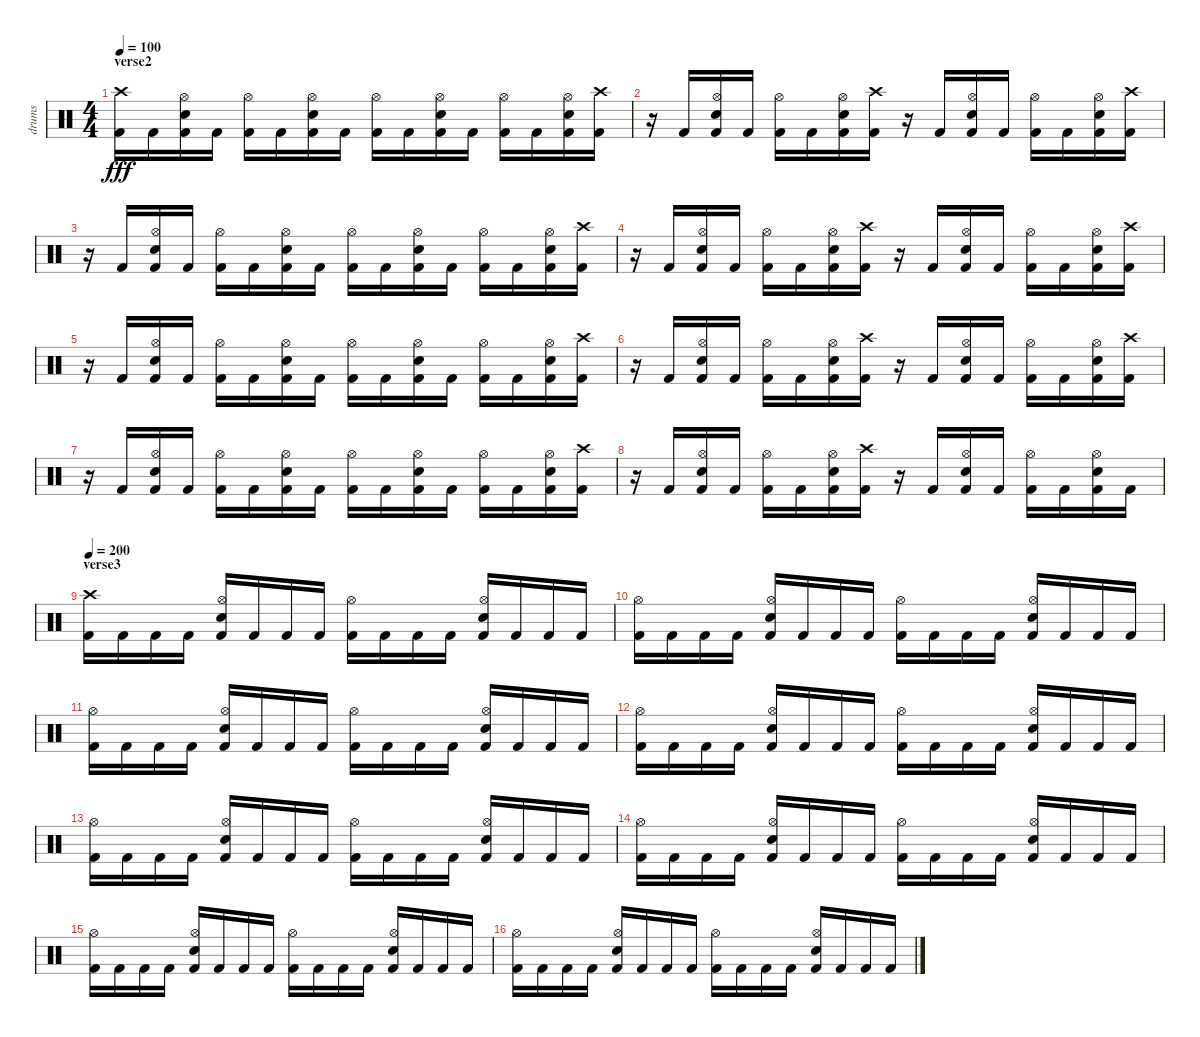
\track ("drums" "drums") {instrument percussion}
\staff {score}
\articulation defaults
\ts (4 4)
\section ("" "verse2")
\tempo 100
\clef neutral
\ks c
("Crash high (hit)" "Kick (hit) 2").16{dy fff} "Kick (hit) 2".16 ("Hi-Hat (open)" "Snare (hit) 2" "Kick (hit) 2").16 "Kick (hit) 2".16 ("Hi-Hat (open)" "Kick (hit) 2").16 "Kick (hit) 2".16 ("Hi-Hat (open)" "Snare (hit) 2" "Kick (hit) 2").16 "Kick (hit) 2".16 ("Hi-Hat (open)" "Kick (hit) 2").16 "Kick (hit) 2".16 ("Hi-Hat (open)" "Snare (hit) 2" "Kick (hit) 2").16 "Kick (hit) 2".16 ("Hi-Hat (open)" "Kick (hit) 2").16 "Kick (hit) 2".16 ("Hi-Hat (open)" "Snare (hit) 2" "Kick (hit) 2").16 ("Crash high (hit)" "Kick (hit) 2").16 |
r.16 "Kick (hit) 2".16 ("Hi-Hat (open)" "Snare (hit) 2" "Kick (hit) 2").16 "Kick (hit) 2".16 ("Hi-Hat (open)" "Kick (hit) 2").16 "Kick (hit) 2".16 ("Hi-Hat (open)" "Snare (hit) 2" "Kick (hit) 2").16 ("Crash high (hit)" "Kick (hit) 2").16 r.16 "Kick (hit) 2".16 ("Hi-Hat (open)" "Snare (hit) 2" "Kick (hit) 2").16 "Kick (hit) 2".16 ("Hi-Hat (open)" "Kick (hit) 2").16 "Kick (hit) 2".16 ("Hi-Hat (open)" "Snare (hit) 2" "Kick (hit) 2").16 ("Crash high (hit)" "Kick (hit) 2").16 |
r.16 "Kick (hit) 2".16 ("Hi-Hat (open)" "Snare (hit) 2" "Kick (hit) 2").16 "Kick (hit) 2".16 ("Hi-Hat (open)" "Kick (hit) 2").16 "Kick (hit) 2".16 ("Hi-Hat (open)" "Snare (hit) 2" "Kick (hit) 2").16 "Kick (hit) 2".16 ("Hi-Hat (open)" "Kick (hit) 2").16 "Kick (hit) 2".16 ("Hi-Hat (open)" "Snare (hit) 2" "Kick (hit) 2").16 "Kick (hit) 2".16 ("Hi-Hat (open)" "Kick (hit) 2").16 "Kick (hit) 2".16 ("Hi-Hat (open)" "Snare (hit) 2" "Kick (hit) 2").16 ("Crash high (hit)" "Kick (hit) 2").16 |
r.16 "Kick (hit) 2".16 ("Hi-Hat (open)" "Snare (hit) 2" "Kick (hit) 2").16 "Kick (hit) 2".16 ("Hi-Hat (open)" "Kick (hit) 2").16 "Kick (hit) 2".16 ("Hi-Hat (open)" "Snare (hit) 2" "Kick (hit) 2").16 ("Crash high (hit)" "Kick (hit) 2").16 r.16 "Kick (hit) 2".16 ("Hi-Hat (open)" "Snare (hit) 2" "Kick (hit) 2").16 "Kick (hit) 2".16 ("Hi-Hat (open)" "Kick (hit) 2").16 "Kick (hit) 2".16 ("Hi-Hat (open)" "Snare (hit) 2" "Kick (hit) 2").16 ("Crash high (hit)" "Kick (hit) 2").16 |
r.16 "Kick (hit) 2".16 ("Hi-Hat (open)" "Snare (hit) 2" "Kick (hit) 2").16 "Kick (hit) 2".16 ("Hi-Hat (open)" "Kick (hit) 2").16 "Kick (hit) 2".16 ("Hi-Hat (open)" "Snare (hit) 2" "Kick (hit) 2").16 "Kick (hit) 2".16 ("Hi-Hat (open)" "Kick (hit) 2").16 "Kick (hit) 2".16 ("Hi-Hat (open)" "Snare (hit) 2" "Kick (hit) 2").16 "Kick (hit) 2".16 ("Hi-Hat (open)" "Kick (hit) 2").16 "Kick (hit) 2".16 ("Hi-Hat (open)" "Snare (hit) 2" "Kick (hit) 2").16 ("Crash high (hit)" "Kick (hit) 2").16 |
r.16 "Kick (hit) 2".16 ("Hi-Hat (open)" "Snare (hit) 2" "Kick (hit) 2").16 "Kick (hit) 2".16 ("Hi-Hat (open)" "Kick (hit) 2").16 "Kick (hit) 2".16 ("Hi-Hat (open)" "Snare (hit) 2" "Kick (hit) 2").16 ("Crash high (hit)" "Kick (hit) 2").16 r.16 "Kick (hit) 2".16 ("Hi-Hat (open)" "Snare (hit) 2" "Kick (hit) 2").16 "Kick (hit) 2".16 ("Hi-Hat (open)" "Kick (hit) 2").16 "Kick (hit) 2".16 ("Hi-Hat (open)" "Snare (hit) 2" "Kick (hit) 2").16 ("Crash high (hit)" "Kick (hit) 2").16 |
r.16 "Kick (hit) 2".16 ("Hi-Hat (open)" "Snare (hit) 2" "Kick (hit) 2").16 "Kick (hit) 2".16 ("Hi-Hat (open)" "Kick (hit) 2").16 "Kick (hit) 2".16 ("Hi-Hat (open)" "Snare (hit) 2" "Kick (hit) 2").16 "Kick (hit) 2".16 ("Hi-Hat (open)" "Kick (hit) 2").16 "Kick (hit) 2".16 ("Hi-Hat (open)" "Snare (hit) 2" "Kick (hit) 2").16 "Kick (hit) 2".16 ("Hi-Hat (open)" "Kick (hit) 2").16 "Kick (hit) 2".16 ("Hi-Hat (open)" "Snare (hit) 2" "Kick (hit) 2").16 ("Crash high (hit)" "Kick (hit) 2").16 |
r.16 "Kick (hit) 2".16 ("Hi-Hat (open)" "Snare (hit) 2" "Kick (hit) 2").16 "Kick (hit) 2".16 ("Hi-Hat (open)" "Kick (hit) 2").16 "Kick (hit) 2".16 ("Hi-Hat (open)" "Snare (hit) 2" "Kick (hit) 2").16 ("Crash high (hit)" "Kick (hit) 2").16 r.16 "Kick (hit) 2".16 ("Hi-Hat (open)" "Snare (hit) 2" "Kick (hit) 2").16 "Kick (hit) 2".16 ("Hi-Hat (open)" "Kick (hit) 2").16 "Kick (hit) 2".16 ("Hi-Hat (open)" "Snare (hit) 2" "Kick (hit) 2").16 "Kick (hit) 2".16 |
\section ("" "verse3")
\tempo 200
("Crash high (hit)" "Kick (hit) 2").16 "Kick (hit) 2".16 "Kick (hit) 2".16 "Kick (hit) 2".16 ("Hi-Hat (open)" "Snare (hit) 2" "Kick (hit) 2").16 "Kick (hit) 2".16 "Kick (hit) 2".16 "Kick (hit) 2".16 ("Hi-Hat (open)" "Kick (hit) 2").16 "Kick (hit) 2".16 "Kick (hit) 2".16 "Kick (hit) 2".16 ("Hi-Hat (open)" "Snare (hit) 2" "Kick (hit) 2").16 "Kick (hit) 2".16 "Kick (hit) 2".16 "Kick (hit) 2".16 |
("Hi-Hat (open)" "Kick (hit) 2").16 "Kick (hit) 2".16 "Kick (hit) 2".16 "Kick (hit) 2".16 ("Hi-Hat (open)" "Snare (hit) 2" "Kick (hit) 2").16 "Kick (hit) 2".16 "Kick (hit) 2".16 "Kick (hit) 2".16 ("Hi-Hat (open)" "Kick (hit) 2").16 "Kick (hit) 2".16 "Kick (hit) 2".16 "Kick (hit) 2".16 ("Hi-Hat (open)" "Snare (hit) 2" "Kick (hit) 2").16 "Kick (hit) 2".16 "Kick (hit) 2".16 "Kick (hit) 2".16 |
("Hi-Hat (open)" "Kick (hit) 2").16 "Kick (hit) 2".16 "Kick (hit) 2".16 "Kick (hit) 2".16 ("Hi-Hat (open)" "Snare (hit) 2" "Kick (hit) 2").16 "Kick (hit) 2".16 "Kick (hit) 2".16 "Kick (hit) 2".16 ("Hi-Hat (open)" "Kick (hit) 2").16 "Kick (hit) 2".16 "Kick (hit) 2".16 "Kick (hit) 2".16 ("Hi-Hat (open)" "Snare (hit) 2" "Kick (hit) 2").16 "Kick (hit) 2".16 "Kick (hit) 2".16 "Kick (hit) 2".16 |
("Hi-Hat (open)" "Kick (hit) 2").16 "Kick (hit) 2".16 "Kick (hit) 2".16 "Kick (hit) 2".16 ("Hi-Hat (open)" "Snare (hit) 2" "Kick (hit) 2").16 "Kick (hit) 2".16 "Kick (hit) 2".16 "Kick (hit) 2".16 ("Hi-Hat (open)" "Kick (hit) 2").16 "Kick (hit) 2".16 "Kick (hit) 2".16 "Kick (hit) 2".16 ("Hi-Hat (open)" "Snare (hit) 2" "Kick (hit) 2").16 "Kick (hit) 2".16 "Kick (hit) 2".16 "Kick (hit) 2".16 |
("Hi-Hat (open)" "Kick (hit) 2").16 "Kick (hit) 2".16 "Kick (hit) 2".16 "Kick (hit) 2".16 ("Hi-Hat (open)" "Snare (hit) 2" "Kick (hit) 2").16 "Kick (hit) 2".16 "Kick (hit) 2".16 "Kick (hit) 2".16 ("Hi-Hat (open)" "Kick (hit) 2").16 "Kick (hit) 2".16 "Kick (hit) 2".16 "Kick (hit) 2".16 ("Hi-Hat (open)" "Snare (hit) 2" "Kick (hit) 2").16 "Kick (hit) 2".16 "Kick (hit) 2".16 "Kick (hit) 2".16 |
("Hi-Hat (open)" "Kick (hit) 2").16 "Kick (hit) 2".16 "Kick (hit) 2".16 "Kick (hit) 2".16 ("Hi-Hat (open)" "Snare (hit) 2" "Kick (hit) 2").16 "Kick (hit) 2".16 "Kick (hit) 2".16 "Kick (hit) 2".16 ("Hi-Hat (open)" "Kick (hit) 2").16 "Kick (hit) 2".16 "Kick (hit) 2".16 "Kick (hit) 2".16 ("Hi-Hat (open)" "Snare (hit) 2" "Kick (hit) 2").16 "Kick (hit) 2".16 "Kick (hit) 2".16 "Kick (hit) 2".16 |
("Hi-Hat (open)" "Kick (hit) 2").16 "Kick (hit) 2".16 "Kick (hit) 2".16 "Kick (hit) 2".16 ("Hi-Hat (open)" "Snare (hit) 2" "Kick (hit) 2").16 "Kick (hit) 2".16 "Kick (hit) 2".16 "Kick (hit) 2".16 ("Hi-Hat (open)" "Kick (hit) 2").16 "Kick (hit) 2".16 "Kick (hit) 2".16 "Kick (hit) 2".16 ("Hi-Hat (open)" "Snare (hit) 2" "Kick (hit) 2").16 "Kick (hit) 2".16 "Kick (hit) 2".16 "Kick (hit) 2".16 |
("Hi-Hat (open)" "Kick (hit) 2").16 "Kick (hit) 2".16 "Kick (hit) 2".16 "Kick (hit) 2".16 ("Hi-Hat (open)" "Snare (hit) 2" "Kick (hit) 2").16 "Kick (hit) 2".16 "Kick (hit) 2".16 "Kick (hit) 2".16 ("Hi-Hat (open)" "Kick (hit) 2").16 "Kick (hit) 2".16 "Kick (hit) 2".16 "Kick (hit) 2".16 ("Hi-Hat (open)" "Snare (hit) 2" "Kick (hit) 2").16 "Kick (hit) 2".16 "Kick (hit) 2".16 "Kick (hit) 2".16
